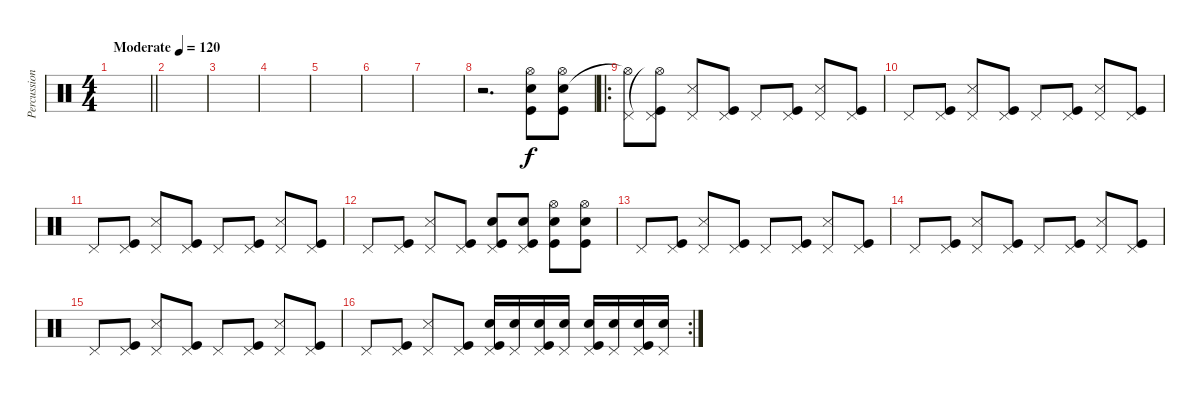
\track ("Percussion" "Percussion") {instrument percussion}
\staff {score}
\articulation defaults
\ts (4 4)
\tempo (120 "Moderate")
\clef neutral
\barLineRight lightlight
\ks c
|
|
|
|
|
|
|
r.2{d} ("Hi-Hat (open)" "Snare (hit) 2" "Kick (hit)").8 ("Hi-Hat (open)" "Snare (hit) 2" "Kick (hit)").8 |
\ro
("Pedal Hi-Hat (hit)" "Hi-Hat (open)"{t}).8 ("Hi-Hat (open)"{t} "Pedal Hi-Hat (hit)" "Kick (hit)").8 ("Pedal Hi-Hat (hit)" "Snare (side stick) 3").8 ("Pedal Hi-Hat (hit)" "Kick (hit)").8 "Pedal Hi-Hat (hit)".8 ("Pedal Hi-Hat (hit)" "Kick (hit)").8 ("Pedal Hi-Hat (hit)" "Snare (side stick) 3").8 ("Pedal Hi-Hat (hit)" "Kick (hit)").8 |
"Pedal Hi-Hat (hit)".8 ("Pedal Hi-Hat (hit)" "Kick (hit)").8 ("Pedal Hi-Hat (hit)" "Snare (side stick) 3").8 ("Pedal Hi-Hat (hit)" "Kick (hit)").8 "Pedal Hi-Hat (hit)".8 ("Pedal Hi-Hat (hit)" "Kick (hit)").8 ("Pedal Hi-Hat (hit)" "Snare (side stick) 3").8 ("Pedal Hi-Hat (hit)" "Kick (hit)").8 |
"Pedal Hi-Hat (hit)".8 ("Pedal Hi-Hat (hit)" "Kick (hit)").8 ("Pedal Hi-Hat (hit)" "Snare (side stick) 3").8 ("Pedal Hi-Hat (hit)" "Kick (hit)").8 "Pedal Hi-Hat (hit)".8 ("Pedal Hi-Hat (hit)" "Kick (hit)").8 ("Pedal Hi-Hat (hit)" "Snare (side stick) 3").8 ("Pedal Hi-Hat (hit)" "Kick (hit)").8 |
"Pedal Hi-Hat (hit)".8 ("Pedal Hi-Hat (hit)" "Kick (hit)").8 ("Pedal Hi-Hat (hit)" "Snare (side stick) 3").8 ("Pedal Hi-Hat (hit)" "Kick (hit)").8 ("Pedal Hi-Hat (hit)" "Snare (hit) 2" "Kick (hit)").8 ("Pedal Hi-Hat (hit)" "Snare (hit) 2" "Kick (hit)").8 ("Hi-Hat (open)" "Snare (hit) 2" "Kick (hit)").8 ("Hi-Hat (open)" "Snare (hit) 2" "Kick (hit)").8 |
"Pedal Hi-Hat (hit)".8 ("Pedal Hi-Hat (hit)" "Kick (hit)").8 ("Pedal Hi-Hat (hit)" "Snare (side stick) 3").8 ("Pedal Hi-Hat (hit)" "Kick (hit)").8 "Pedal Hi-Hat (hit)".8 ("Pedal Hi-Hat (hit)" "Kick (hit)").8 ("Pedal Hi-Hat (hit)" "Snare (side stick) 3").8 ("Pedal Hi-Hat (hit)" "Kick (hit)").8 |
"Pedal Hi-Hat (hit)".8 ("Pedal Hi-Hat (hit)" "Kick (hit)").8 ("Pedal Hi-Hat (hit)" "Snare (side stick) 3").8 ("Pedal Hi-Hat (hit)" "Kick (hit)").8 "Pedal Hi-Hat (hit)".8 ("Pedal Hi-Hat (hit)" "Kick (hit)").8 ("Pedal Hi-Hat (hit)" "Snare (side stick) 3").8 ("Pedal Hi-Hat (hit)" "Kick (hit)").8 |
"Pedal Hi-Hat (hit)".8 ("Pedal Hi-Hat (hit)" "Kick (hit)").8 ("Pedal Hi-Hat (hit)" "Snare (side stick) 3").8 ("Pedal Hi-Hat (hit)" "Kick (hit)").8 "Pedal Hi-Hat (hit)".8 ("Pedal Hi-Hat (hit)" "Kick (hit)").8 ("Pedal Hi-Hat (hit)" "Snare (side stick) 3").8 ("Pedal Hi-Hat (hit)" "Kick (hit)").8 |
\rc 2 "Pedal Hi-Hat (hit)".8
("Pedal Hi-Hat (hit)" "Kick (hit)").8 ("Pedal Hi-Hat (hit)" "Snare (side stick) 3").8 ("Pedal Hi-Hat (hit)" "Kick (hit)").8 ("Pedal Hi-Hat (hit)" "Snare (hit) 2" "Kick (hit)").16 ("Pedal Hi-Hat (hit)" "Snare (hit) 2").16 ("Pedal Hi-Hat (hit)" "Snare (hit) 2" "Kick (hit)").16 ("Pedal Hi-Hat (hit)" "Snare (hit) 2").16 ("Pedal Hi-Hat (hit)" "Snare (hit) 2" "Kick (hit)").16 ("Pedal Hi-Hat (hit)" "Snare (hit) 2").16 ("Pedal Hi-Hat (hit)" "Snare (hit) 2" "Kick (hit)").16 ("Pedal Hi-Hat (hit)" "Snare (hit) 2").16
